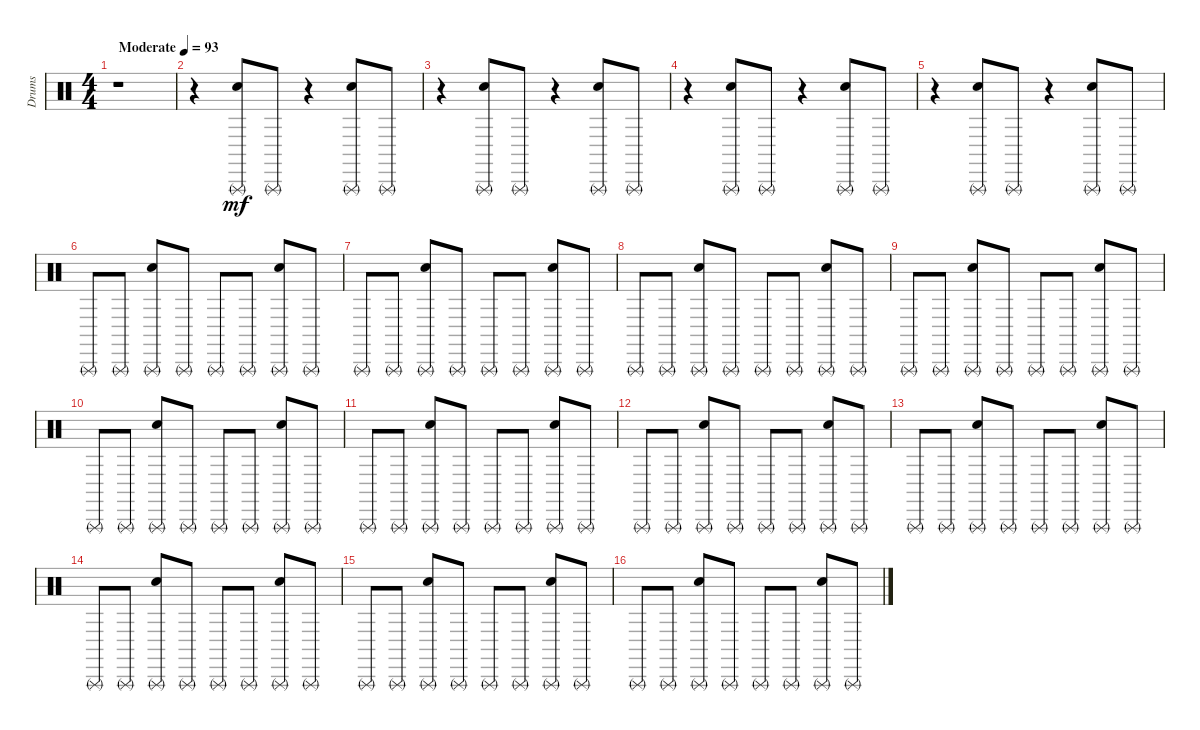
\track ("Drums" "Drums") {instrument percussion}
\staff {score}
\articulation defaults
\ts (4 4)
\tempo (93 "Moderate")
\clef neutral
\ks c
r.1{dy mf} |
r.4 ("Hand Clap (hit)" "Triangle (rnute)").8 "Triangle (rnute)".8 r.4 ("Hand Clap (hit)" "Triangle (rnute)").8 "Triangle (rnute)".8 |
r.4 ("Hand Clap (hit)" "Triangle (rnute)").8 "Triangle (rnute)".8 r.4 ("Hand Clap (hit)" "Triangle (rnute)").8 "Triangle (rnute)".8 |
r.4 ("Hand Clap (hit)" "Triangle (rnute)").8 "Triangle (rnute)".8 r.4 ("Hand Clap (hit)" "Triangle (rnute)").8 "Triangle (rnute)".8 |
r.4 ("Hand Clap (hit)" "Triangle (rnute)").8 "Triangle (rnute)".8 r.4 ("Hand Clap (hit)" "Triangle (rnute)").8 "Triangle (rnute)".8 |
"Triangle (rnute)".8 "Triangle (rnute)".8 ("Hand Clap (hit)" "Triangle (rnute)").8 "Triangle (rnute)".8 "Triangle (rnute)".8 "Triangle (rnute)".8 ("Hand Clap (hit)" "Triangle (rnute)").8 "Triangle (rnute)".8 |
"Triangle (rnute)".8 "Triangle (rnute)".8 ("Hand Clap (hit)" "Triangle (rnute)").8 "Triangle (rnute)".8 "Triangle (rnute)".8 "Triangle (rnute)".8 ("Hand Clap (hit)" "Triangle (rnute)").8 "Triangle (rnute)".8 |
"Triangle (rnute)".8 "Triangle (rnute)".8 ("Hand Clap (hit)" "Triangle (rnute)").8 "Triangle (rnute)".8 "Triangle (rnute)".8 "Triangle (rnute)".8 ("Hand Clap (hit)" "Triangle (rnute)").8 "Triangle (rnute)".8 |
"Triangle (rnute)".8 "Triangle (rnute)".8 ("Hand Clap (hit)" "Triangle (rnute)").8 "Triangle (rnute)".8 "Triangle (rnute)".8 "Triangle (rnute)".8 ("Hand Clap (hit)" "Triangle (rnute)").8 "Triangle (rnute)".8 |
"Triangle (rnute)".8 "Triangle (rnute)".8 ("Hand Clap (hit)" "Triangle (rnute)").8 "Triangle (rnute)".8 "Triangle (rnute)".8 "Triangle (rnute)".8 ("Hand Clap (hit)" "Triangle (rnute)").8 "Triangle (rnute)".8 |
"Triangle (rnute)".8 "Triangle (rnute)".8 ("Hand Clap (hit)" "Triangle (rnute)").8 "Triangle (rnute)".8 "Triangle (rnute)".8 "Triangle (rnute)".8 ("Hand Clap (hit)" "Triangle (rnute)").8 "Triangle (rnute)".8 |
"Triangle (rnute)".8 "Triangle (rnute)".8 ("Hand Clap (hit)" "Triangle (rnute)").8 "Triangle (rnute)".8 "Triangle (rnute)".8 "Triangle (rnute)".8 ("Hand Clap (hit)" "Triangle (rnute)").8 "Triangle (rnute)".8 |
"Triangle (rnute)".8 "Triangle (rnute)".8 ("Hand Clap (hit)" "Triangle (rnute)").8 "Triangle (rnute)".8 "Triangle (rnute)".8 "Triangle (rnute)".8 ("Hand Clap (hit)" "Triangle (rnute)").8 "Triangle (rnute)".8 |
"Triangle (rnute)".8 "Triangle (rnute)".8 ("Hand Clap (hit)" "Triangle (rnute)").8 "Triangle (rnute)".8 "Triangle (rnute)".8 "Triangle (rnute)".8 ("Hand Clap (hit)" "Triangle (rnute)").8 "Triangle (rnute)".8 |
"Triangle (rnute)".8 "Triangle (rnute)".8 ("Hand Clap (hit)" "Triangle (rnute)").8 "Triangle (rnute)".8 "Triangle (rnute)".8 "Triangle (rnute)".8 ("Hand Clap (hit)" "Triangle (rnute)").8 "Triangle (rnute)".8 |
"Triangle (rnute)".8 "Triangle (rnute)".8 ("Hand Clap (hit)" "Triangle (rnute)").8 "Triangle (rnute)".8 "Triangle (rnute)".8 "Triangle (rnute)".8 ("Hand Clap (hit)" "Triangle (rnute)").8 "Triangle (rnute)".8
